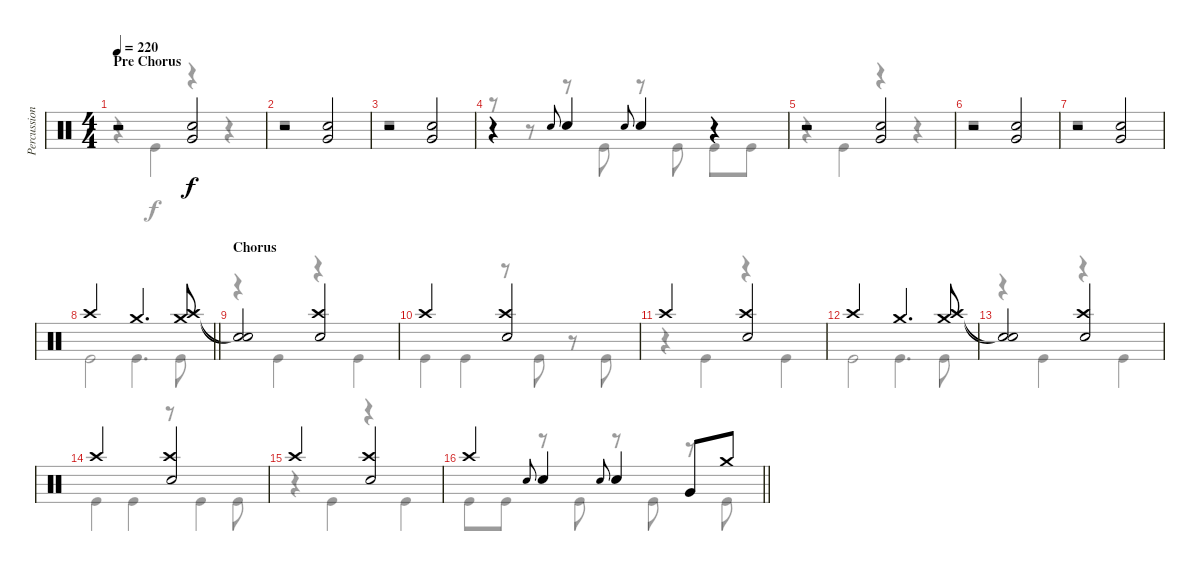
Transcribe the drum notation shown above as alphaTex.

\track ("Percussion" "Percussion") {instrument percussion}
\staff {score}
\articulation defaults
\voice
\ts (4 4)
\section ("" "Pre Chorus")
\tempo 220
\clef neutral
\ks c
r.2{dy f} ("Very Low Tom (hit)" "Electric Snare (hit)").2 |
r.2 ("Very Low Tom (hit)" "Electric Snare (hit)").2 |
r.2 ("Very Low Tom (hit)" "Electric Snare (hit)").2 |
r.4 "Electric Snare (hit)".8{gr onbeat} "Electric Snare (hit)".4 "Electric Snare (hit)".8{gr onbeat} "Electric Snare (hit)".4 r.4 |
r.2 ("Very Low Tom (hit)" "Electric Snare (hit)").2 |
r.2 ("Very Low Tom (hit)" "Electric Snare (hit)").2 |
r.2 ("Very Low Tom (hit)" "Electric Snare (hit)").2 |
\barLineRight lightlight "Crash high (hit)".2 "Crash medium (hit)".4{d}
("Crash medium (hit)" "Crash high (hit)").8 |
\section ("" "Chorus")
("Snare (hit)"{t} "Snare (hit)"{t}).2 ("Crash high (hit)" "Electric Snare (hit)").2 |
"Crash high (hit)".2 ("Crash high (hit)" "Electric Snare (hit)").2 |
"Crash high (hit)".2 ("Crash high (hit)" "Electric Snare (hit)").2 |
"Crash high (hit)".2 "Crash medium (hit)".4{d} ("Crash medium (hit)" "Crash high (hit)").8 |
("Snare (hit)"{t} "Snare (hit)"{t}).2 ("Crash high (hit)" "Electric Snare (hit)").2 |
"Crash high (hit)".2 ("Crash high (hit)" "Electric Snare (hit)").2 |
"Crash high (hit)".2 ("Crash high (hit)" "Electric Snare (hit)").2 |
\barLineRight lightlight "Crash high (hit)".4 "Electric Snare (hit)".8{gr onbeat} "Electric Snare (hit)".4 "Electric Snare (hit)".8{gr onbeat} "Electric Snare (hit)".4 "Very Low Tom (hit)".8 "Crash medium (hit)".8
\voice
\clef neutral
\ottava regular
\simile none
\ks c
r.4{dy f} "Kick (hit)".4 r.4 r.4 |
r.1 |
r.1 |
r.8 r.8 r.8 "Kick (hit)".8 r.8 "Kick (hit)".8 "Kick (hit)".8 "Kick (hit)".8 |
r.4 "Kick (hit)".4 r.4 r.4 |
r.1 |
r.1 |
\barLineRight lightlight "Kick (hit)".2 "Kick (hit)".4{d} "Kick (hit)".8
|
r.4 "Kick (hit)".4 r.4 "Kick (hit)".4 |
"Kick (hit)".4 "Kick (hit)".4 r.8 "Kick (hit)".8 r.8 "Kick (hit)".8 |
r.4 "Kick (hit)".4 r.4 "Kick (hit)".4 |
"Kick (hit)".2 "Kick (hit)".4{d} "Kick (hit)".8 |
r.4 "Kick (hit)".4 r.4 "Kick (hit)".4 |
"Kick (hit)".4 "Kick (hit)".4 r.8 "Kick (hit)".4 "Kick (hit)".8 |
r.4 "Kick (hit)".4 r.4 "Kick (hit)".4 |
\barLineRight lightlight "Kick (hit)".8 "Kick (hit)".8
r.8 "Kick (hit)".8 r.8 "Kick (hit)".8 r.8 "Kick (hit)".8
